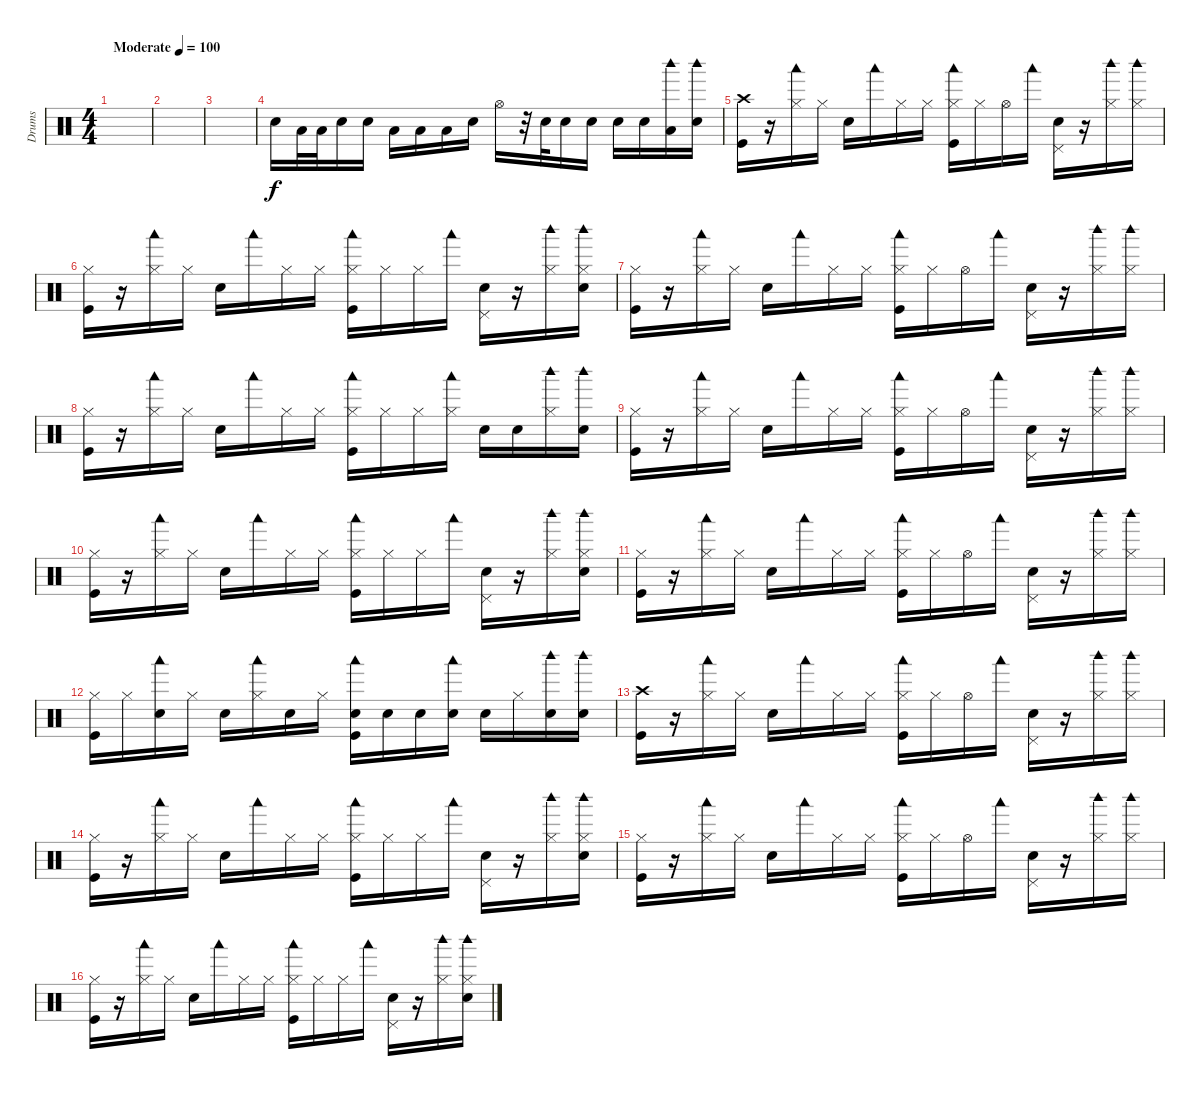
\track ("Drums" "Drums") {instrument percussion}
\staff {score}
\articulation defaults
\ts (4 4)
\tempo (100 "Moderate")
\clef neutral
\ks c
|
|
|
"Snare (hit) 2".16 "Low Tom (hit)".32 "Low Tom (hit)".32 "Snare (hit) 2".16 "Snare (hit) 2".16 "Low Tom (hit)".16 "Low Tom (hit)".16 "Low Floor Tom (hit)".16 "Snare (hit) 2".16 "Hi-Hat (open)".16 r.32 "Snare (hit) 2".32 "Snare (hit) 2".16 "Snare (hit) 2".16 "Snare (hit) 2".16 "Snare (hit) 2".16 ("Low Floor Tom (hit)" "Woodblock high (hit)").16 ("Snare (hit) 2" "Woodblock high (hit)").16 |
("Kick (hit)" "Crash high (hit)").16 r.16 ("Hi-Hat (closed)" "Woodblock low (hit)").16 "Hi-Hat (closed)".16 "Snare (hit) 2".16 "Woodblock low (hit)".16 "Hi-Hat (closed)".16 "Hi-Hat (closed)".16 ("Kick (hit)" "Hi-Hat (closed)" "Woodblock low (hit)").16 "Hi-Hat (closed)".16 "Hi-Hat (open)".16 "Woodblock low (hit)".16 ("Snare (hit) 2" "Pedal Hi-Hat (hit)").16 r.16 ("Hi-Hat (closed)" "Woodblock high (hit)").16 ("Hi-Hat (closed)" "Woodblock high (hit)").16 |
("Kick (hit)" "Hi-Hat (closed)").16 r.16 ("Hi-Hat (closed)" "Woodblock low (hit)").16 "Hi-Hat (closed)".16 "Snare (hit) 2".16 "Woodblock low (hit)".16 "Hi-Hat (closed)".16 "Hi-Hat (closed)".16 ("Kick (hit)" "Hi-Hat (closed)" "Woodblock low (hit)").16 "Hi-Hat (closed)".16 "Hi-Hat (closed)".16 "Woodblock low (hit)".16 ("Snare (hit) 2" "Pedal Hi-Hat (hit)").16 r.16 ("Hi-Hat (closed)" "Woodblock high (hit)").16 ("Snare (hit) 2" "Hi-Hat (closed)" "Woodblock high (hit)").16 |
("Kick (hit)" "Hi-Hat (closed)").16 r.16 ("Hi-Hat (closed)" "Woodblock low (hit)").16 "Hi-Hat (closed)".16 "Snare (hit) 2".16 "Woodblock low (hit)".16 "Hi-Hat (closed)".16 "Hi-Hat (closed)".16 ("Kick (hit)" "Hi-Hat (closed)" "Woodblock low (hit)").16 "Hi-Hat (closed)".16 "Hi-Hat (open)".16 "Woodblock low (hit)".16 ("Snare (hit) 2" "Pedal Hi-Hat (hit)").16 r.16 ("Hi-Hat (closed)" "Woodblock high (hit)").16 ("Hi-Hat (closed)" "Woodblock high (hit)").16 |
("Kick (hit)" "Hi-Hat (closed)").16 r.16 ("Hi-Hat (closed)" "Woodblock low (hit)").16 "Hi-Hat (closed)".16 "Snare (hit) 2".16 "Woodblock low (hit)".16 "Hi-Hat (closed)".16 "Hi-Hat (closed)".16 ("Kick (hit)" "Hi-Hat (closed)" "Woodblock low (hit)").16 "Hi-Hat (closed)".16 "Hi-Hat (closed)".16 ("Hi-Hat (closed)" "Woodblock low (hit)").16 "Snare (hit) 2".16 "Snare (hit) 2".16 ("Hi-Hat (closed)" "Woodblock high (hit)").16 ("Snare (hit) 2" "Woodblock high (hit)").16 |
("Kick (hit)" "Hi-Hat (closed)").16 r.16 ("Hi-Hat (closed)" "Woodblock low (hit)").16 "Hi-Hat (closed)".16 "Snare (hit) 2".16 "Woodblock low (hit)".16 "Hi-Hat (closed)".16 "Hi-Hat (closed)".16 ("Kick (hit)" "Hi-Hat (closed)" "Woodblock low (hit)").16 "Hi-Hat (closed)".16 "Hi-Hat (open)".16 "Woodblock low (hit)".16 ("Snare (hit) 2" "Pedal Hi-Hat (hit)").16 r.16 ("Hi-Hat (closed)" "Woodblock high (hit)").16 ("Hi-Hat (closed)" "Woodblock high (hit)").16 |
("Kick (hit)" "Hi-Hat (closed)").16 r.16 ("Hi-Hat (closed)" "Woodblock low (hit)").16 "Hi-Hat (closed)".16 "Snare (hit) 2".16 "Woodblock low (hit)".16 "Hi-Hat (closed)".16 "Hi-Hat (closed)".16 ("Kick (hit)" "Hi-Hat (closed)" "Woodblock low (hit)").16 "Hi-Hat (closed)".16 "Hi-Hat (closed)".16 "Woodblock low (hit)".16 ("Snare (hit) 2" "Pedal Hi-Hat (hit)").16 r.16 ("Hi-Hat (closed)" "Woodblock high (hit)").16 ("Snare (hit) 2" "Hi-Hat (closed)" "Woodblock high (hit)").16 |
("Kick (hit)" "Hi-Hat (closed)").16 r.16 ("Hi-Hat (closed)" "Woodblock low (hit)").16 "Hi-Hat (closed)".16 "Snare (hit) 2".16 "Woodblock low (hit)".16 "Hi-Hat (closed)".16 "Hi-Hat (closed)".16 ("Kick (hit)" "Hi-Hat (closed)" "Woodblock low (hit)").16 "Hi-Hat (closed)".16 "Hi-Hat (open)".16 "Woodblock low (hit)".16 ("Snare (hit) 2" "Pedal Hi-Hat (hit)").16 r.16 ("Hi-Hat (closed)" "Woodblock high (hit)").16 ("Hi-Hat (closed)" "Woodblock high (hit)").16 |
("Kick (hit)" "Hi-Hat (closed)").16 "Hi-Hat (closed)".16 ("Snare (hit) 2" "Woodblock low (hit)").16 "Hi-Hat (closed)".16 "Snare (hit) 2".16 ("Hi-Hat (closed)" "Woodblock low (hit)").16 "Snare (hit) 2".16 "Hi-Hat (closed)".16 ("Kick (hit)" "Snare (hit) 2" "Woodblock low (hit)").16 "Snare (hit) 2".16 "Snare (hit) 2".16 ("Snare (hit) 2" "Woodblock low (hit)").16 "Snare (hit) 2".16 "Hi-Hat (closed)".16 ("Snare (hit) 2" "Woodblock high (hit)").16 ("Snare (hit) 2" "Woodblock high (hit)").16 |
("Kick (hit)" "Crash high (hit)").16 r.16 ("Hi-Hat (closed)" "Woodblock low (hit)").16 "Hi-Hat (closed)".16 "Snare (hit) 2".16 "Woodblock low (hit)".16 "Hi-Hat (closed)".16 "Hi-Hat (closed)".16 ("Kick (hit)" "Hi-Hat (closed)" "Woodblock low (hit)").16 "Hi-Hat (closed)".16 "Hi-Hat (open)".16 "Woodblock low (hit)".16 ("Snare (hit) 2" "Pedal Hi-Hat (hit)").16 r.16 ("Hi-Hat (closed)" "Woodblock high (hit)").16 ("Hi-Hat (closed)" "Woodblock high (hit)").16 |
("Kick (hit)" "Hi-Hat (closed)").16 r.16 ("Hi-Hat (closed)" "Woodblock low (hit)").16 "Hi-Hat (closed)".16 "Snare (hit) 2".16 "Woodblock low (hit)".16 "Hi-Hat (closed)".16 "Hi-Hat (closed)".16 ("Kick (hit)" "Hi-Hat (closed)" "Woodblock low (hit)").16 "Hi-Hat (closed)".16 "Hi-Hat (closed)".16 "Woodblock low (hit)".16 ("Snare (hit) 2" "Pedal Hi-Hat (hit)").16 r.16 ("Hi-Hat (closed)" "Woodblock high (hit)").16 ("Snare (hit) 2" "Hi-Hat (closed)" "Woodblock high (hit)").16 |
("Kick (hit)" "Hi-Hat (closed)").16 r.16 ("Hi-Hat (closed)" "Woodblock low (hit)").16 "Hi-Hat (closed)".16 "Snare (hit) 2".16 "Woodblock low (hit)".16 "Hi-Hat (closed)".16 "Hi-Hat (closed)".16 ("Kick (hit)" "Hi-Hat (closed)" "Woodblock low (hit)").16 "Hi-Hat (closed)".16 "Hi-Hat (open)".16 "Woodblock low (hit)".16 ("Snare (hit) 2" "Pedal Hi-Hat (hit)").16 r.16 ("Hi-Hat (closed)" "Woodblock high (hit)").16 ("Hi-Hat (closed)" "Woodblock high (hit)").16 |
("Kick (hit)" "Hi-Hat (closed)").16 r.16 ("Hi-Hat (closed)" "Woodblock low (hit)").16 "Hi-Hat (closed)".16 "Snare (hit) 2".16 "Woodblock low (hit)".16 "Hi-Hat (closed)".16 "Hi-Hat (closed)".16 ("Kick (hit)" "Hi-Hat (closed)" "Woodblock low (hit)").16 "Hi-Hat (closed)".16 "Hi-Hat (closed)".16 "Woodblock low (hit)".16 ("Snare (hit) 2" "Pedal Hi-Hat (hit)").16 r.16 ("Hi-Hat (closed)" "Woodblock high (hit)").16 ("Snare (hit) 2" "Hi-Hat (closed)" "Woodblock high (hit)").16
